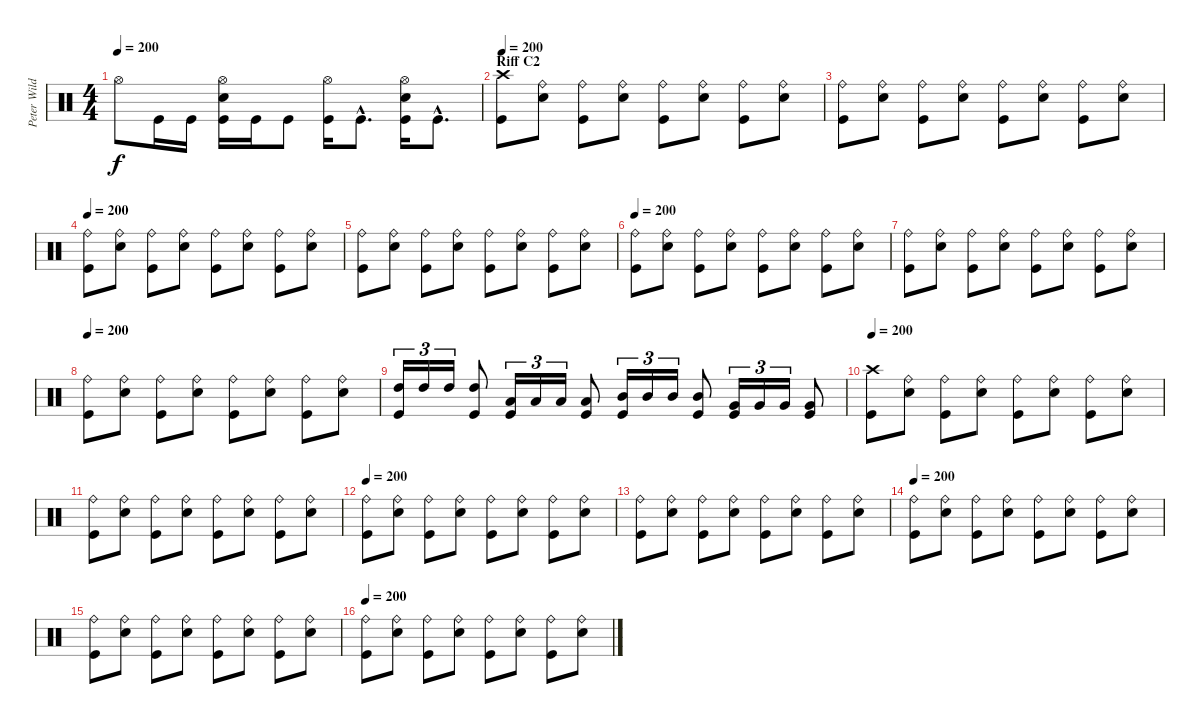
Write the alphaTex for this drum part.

\track ("Peter Wildoer " "Peter Wild") {instrument percussion}
\staff {score}
\articulation defaults
\ts (4 4)
\tempo 200
\clef neutral
\ks c "Hi-Hat (open)".8{dy f} "Kick (hit)".16 "Kick (hit)".16
("Hi-Hat (open)" "Electric Snare (hit)" "Kick (hit)").16 "Kick (hit)".16 "Kick (hit)".8 ("Hi-Hat (open)" "Kick (hit)").16 "Kick (hit)"{hac}.8{d} ("Hi-Hat (open)" "Electric Snare (hit)" "Kick (hit)").16 "Kick (hit)"{hac}.8{d} |
\section ("" "Riff C2")
\tempo 200
("Crash high (hit)" "Kick (hit)").8 ("Ride (bell)" "Electric Snare (hit)").8 ("Ride (bell)" "Kick (hit)").8 ("Ride (bell)" "Electric Snare (hit)").8 ("Ride (bell)" "Kick (hit)").8 ("Ride (bell)" "Electric Snare (hit)").8 ("Ride (bell)" "Kick (hit)").8 ("Ride (bell)" "Electric Snare (hit)").8 |
("Ride (bell)" "Kick (hit)").8 ("Ride (bell)" "Electric Snare (hit)").8 ("Ride (bell)" "Kick (hit)").8 ("Ride (bell)" "Electric Snare (hit)").8 ("Ride (bell)" "Kick (hit)").8 ("Ride (bell)" "Electric Snare (hit)").8 ("Ride (bell)" "Kick (hit)").8 ("Ride (bell)" "Electric Snare (hit)").8 |
\tempo 200
("Ride (bell)" "Kick (hit)").8 ("Ride (bell)" "Electric Snare (hit)").8 ("Ride (bell)" "Kick (hit)").8 ("Ride (bell)" "Electric Snare (hit)").8 ("Ride (bell)" "Kick (hit)").8 ("Ride (bell)" "Electric Snare (hit)").8 ("Ride (bell)" "Kick (hit)").8 ("Ride (bell)" "Electric Snare (hit)").8 |
("Ride (bell)" "Kick (hit)").8 ("Ride (bell)" "Electric Snare (hit)").8 ("Ride (bell)" "Kick (hit)").8 ("Ride (bell)" "Electric Snare (hit)").8 ("Ride (bell)" "Kick (hit)").8 ("Ride (bell)" "Electric Snare (hit)").8 ("Ride (bell)" "Kick (hit)").8 ("Ride (bell)" "Electric Snare (hit)").8 |
\tempo 200
("Ride (bell)" "Kick (hit)").8 ("Ride (bell)" "Electric Snare (hit)").8 ("Ride (bell)" "Kick (hit)").8 ("Ride (bell)" "Electric Snare (hit)").8 ("Ride (bell)" "Kick (hit)").8 ("Ride (bell)" "Electric Snare (hit)").8 ("Ride (bell)" "Kick (hit)").8 ("Ride (bell)" "Electric Snare (hit)").8 |
("Ride (bell)" "Kick (hit)").8 ("Ride (bell)" "Electric Snare (hit)").8 ("Ride (bell)" "Kick (hit)").8 ("Ride (bell)" "Electric Snare (hit)").8 ("Ride (bell)" "Kick (hit)").8 ("Ride (bell)" "Electric Snare (hit)").8 ("Ride (bell)" "Kick (hit)").8 ("Ride (bell)" "Electric Snare (hit)").8 |
\tempo 200
("Ride (bell)" "Kick (hit)").8 ("Ride (bell)" "Electric Snare (hit)").8 ("Ride (bell)" "Kick (hit)").8 ("Ride (bell)" "Electric Snare (hit)").8 ("Ride (bell)" "Kick (hit)").8 ("Ride (bell)" "Electric Snare (hit)").8 ("Ride (bell)" "Kick (hit)").8 ("Ride (bell)" "Electric Snare (hit)").8 |
("High Tom (hit)" "Kick (hit)").16{tu (3 2)} "High Tom (hit)".16{tu (3 2)} "High Tom (hit)".16{tu (3 2)} ("High Tom (hit)" "Kick (hit)").8 ("Low Tom (hit)" "Kick (hit)").16{tu (3 2)} "Low Tom (hit)".16{tu (3 2)} "Low Tom (hit)".16{tu (3 2)} ("Low Tom (hit)" "Kick (hit)").8 ("Mid Tom (hit)" "Kick (hit)").16{tu (3 2)} "Mid Tom (hit)".16{tu (3 2)} "Mid Tom (hit)".16{tu (3 2)} ("Mid Tom (hit)" "Kick (hit)").8 ("Very Low Tom (hit)" "Kick (hit)").16{tu (3 2)} "Very Low Tom (hit)".16{tu (3 2)} "Very Low Tom (hit)".16{tu (3 2)} ("Very Low Tom (hit)" "Kick (hit)").8 |
\tempo 200
("Crash high (hit)" "Kick (hit)").8 ("Ride (bell)" "Electric Snare (hit)").8 ("Ride (bell)" "Kick (hit)").8 ("Ride (bell)" "Electric Snare (hit)").8 ("Ride (bell)" "Kick (hit)").8 ("Ride (bell)" "Electric Snare (hit)").8 ("Ride (bell)" "Kick (hit)").8 ("Ride (bell)" "Electric Snare (hit)").8 |
("Ride (bell)" "Kick (hit)").8 ("Ride (bell)" "Electric Snare (hit)").8 ("Ride (bell)" "Kick (hit)").8 ("Ride (bell)" "Electric Snare (hit)").8 ("Ride (bell)" "Kick (hit)").8 ("Ride (bell)" "Electric Snare (hit)").8 ("Ride (bell)" "Kick (hit)").8 ("Ride (bell)" "Electric Snare (hit)").8 |
\tempo 200
("Ride (bell)" "Kick (hit)").8 ("Ride (bell)" "Electric Snare (hit)").8 ("Ride (bell)" "Kick (hit)").8 ("Ride (bell)" "Electric Snare (hit)").8 ("Ride (bell)" "Kick (hit)").8 ("Ride (bell)" "Electric Snare (hit)").8 ("Ride (bell)" "Kick (hit)").8 ("Ride (bell)" "Electric Snare (hit)").8 |
("Ride (bell)" "Kick (hit)").8 ("Ride (bell)" "Electric Snare (hit)").8 ("Ride (bell)" "Kick (hit)").8 ("Ride (bell)" "Electric Snare (hit)").8 ("Ride (bell)" "Kick (hit)").8 ("Ride (bell)" "Electric Snare (hit)").8 ("Ride (bell)" "Kick (hit)").8 ("Ride (bell)" "Electric Snare (hit)").8 |
\tempo 200
("Ride (bell)" "Kick (hit)").8 ("Ride (bell)" "Electric Snare (hit)").8 ("Ride (bell)" "Kick (hit)").8 ("Ride (bell)" "Electric Snare (hit)").8 ("Ride (bell)" "Kick (hit)").8 ("Ride (bell)" "Electric Snare (hit)").8 ("Ride (bell)" "Kick (hit)").8 ("Ride (bell)" "Electric Snare (hit)").8 |
("Ride (bell)" "Kick (hit)").8 ("Ride (bell)" "Electric Snare (hit)").8 ("Ride (bell)" "Kick (hit)").8 ("Ride (bell)" "Electric Snare (hit)").8 ("Ride (bell)" "Kick (hit)").8 ("Ride (bell)" "Electric Snare (hit)").8 ("Ride (bell)" "Kick (hit)").8 ("Ride (bell)" "Electric Snare (hit)").8 |
\tempo 200
("Ride (bell)" "Kick (hit)").8 ("Ride (bell)" "Electric Snare (hit)").8 ("Ride (bell)" "Kick (hit)").8 ("Ride (bell)" "Electric Snare (hit)").8 ("Ride (bell)" "Kick (hit)").8 ("Ride (bell)" "Electric Snare (hit)").8 ("Ride (bell)" "Kick (hit)").8 ("Ride (bell)" "Electric Snare (hit)").8
